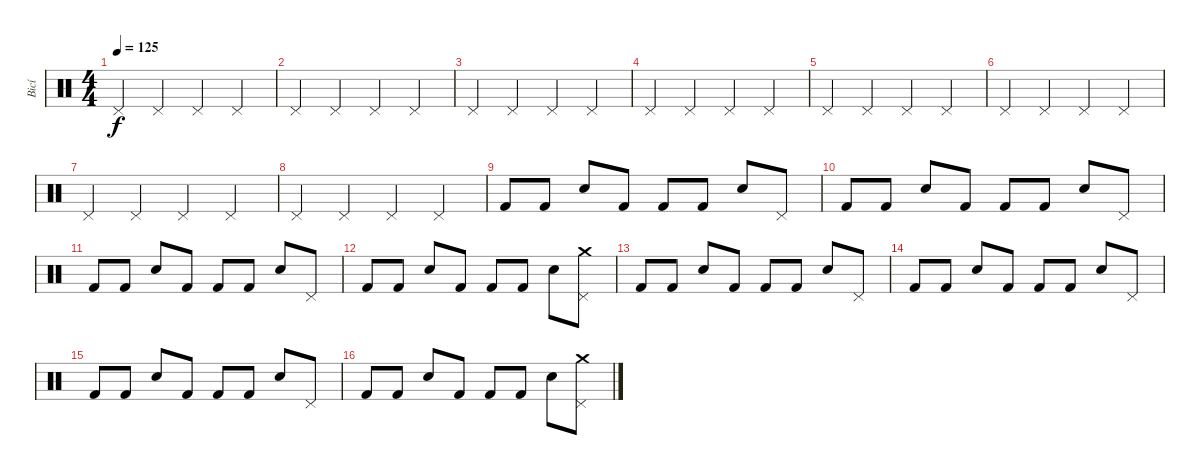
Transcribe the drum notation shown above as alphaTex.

\track ("Bicí" "Bicí") {instrument percussion}
\staff {score}
\articulation defaults
\ts (4 4)
\tempo 125
\clef neutral
\ks c "Pedal Hi-Hat (hit)".4{dy f} "Pedal Hi-Hat (hit)".4 "Pedal Hi-Hat (hit)".4 "Pedal Hi-Hat (hit)".4
|
"Pedal Hi-Hat (hit)".4 "Pedal Hi-Hat (hit)".4 "Pedal Hi-Hat (hit)".4 "Pedal Hi-Hat (hit)".4 |
"Pedal Hi-Hat (hit)".4 "Pedal Hi-Hat (hit)".4 "Pedal Hi-Hat (hit)".4 "Pedal Hi-Hat (hit)".4 |
"Pedal Hi-Hat (hit)".4 "Pedal Hi-Hat (hit)".4 "Pedal Hi-Hat (hit)".4 "Pedal Hi-Hat (hit)".4 |
"Pedal Hi-Hat (hit)".4 "Pedal Hi-Hat (hit)".4 "Pedal Hi-Hat (hit)".4 "Pedal Hi-Hat (hit)".4 |
"Pedal Hi-Hat (hit)".4 "Pedal Hi-Hat (hit)".4 "Pedal Hi-Hat (hit)".4 "Pedal Hi-Hat (hit)".4 |
"Pedal Hi-Hat (hit)".4 "Pedal Hi-Hat (hit)".4 "Pedal Hi-Hat (hit)".4 "Pedal Hi-Hat (hit)".4 |
"Pedal Hi-Hat (hit)".4 "Pedal Hi-Hat (hit)".4 "Pedal Hi-Hat (hit)".4 "Pedal Hi-Hat (hit)".4 |
"Kick (hit) 2".8 "Kick (hit) 2".8 "Snare (hit) 2".8 "Kick (hit) 2".8 "Kick (hit) 2".8 "Kick (hit) 2".8 "Snare (hit) 2".8 "Pedal Hi-Hat (hit)".8 |
"Kick (hit) 2".8 "Kick (hit) 2".8 "Snare (hit) 2".8 "Kick (hit) 2".8 "Kick (hit) 2".8 "Kick (hit) 2".8 "Snare (hit) 2".8 "Pedal Hi-Hat (hit)".8 |
"Kick (hit) 2".8 "Kick (hit) 2".8 "Snare (hit) 2".8 "Kick (hit) 2".8 "Kick (hit) 2".8 "Kick (hit) 2".8 "Snare (hit) 2".8 "Pedal Hi-Hat (hit)".8 |
"Kick (hit) 2".8 "Kick (hit) 2".8 "Snare (hit) 2".8 "Kick (hit) 2".8 "Kick (hit) 2".8 "Kick (hit) 2".8 "Snare (hit) 2".8 ("Pedal Hi-Hat (hit)" "Crash medium (hit)").8 |
"Kick (hit) 2".8 "Kick (hit) 2".8 "Snare (hit) 2".8 "Kick (hit) 2".8 "Kick (hit) 2".8 "Kick (hit) 2".8 "Snare (hit) 2".8 "Pedal Hi-Hat (hit)".8 |
"Kick (hit) 2".8 "Kick (hit) 2".8 "Snare (hit) 2".8 "Kick (hit) 2".8 "Kick (hit) 2".8 "Kick (hit) 2".8 "Snare (hit) 2".8 "Pedal Hi-Hat (hit)".8 |
"Kick (hit) 2".8 "Kick (hit) 2".8 "Snare (hit) 2".8 "Kick (hit) 2".8 "Kick (hit) 2".8 "Kick (hit) 2".8 "Snare (hit) 2".8 "Pedal Hi-Hat (hit)".8 |
"Kick (hit) 2".8 "Kick (hit) 2".8 "Snare (hit) 2".8 "Kick (hit) 2".8 "Kick (hit) 2".8 "Kick (hit) 2".8 "Snare (hit) 2".8 ("Pedal Hi-Hat (hit)" "Crash medium (hit)").8
